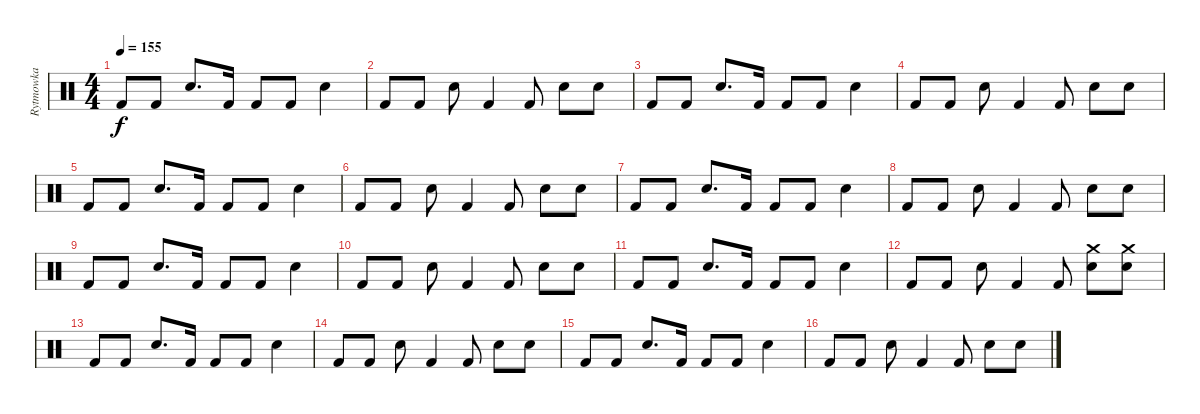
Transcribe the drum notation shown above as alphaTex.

\track ("Rytmowka" "Rytmowka") {instrument percussion}
\staff {score}
\articulation defaults
\ts (4 4)
\tempo 155
\clef neutral
\ks c "Kick (hit) 2".8{dy f} "Kick (hit) 2".8 "Snare (hit) 2".8{d} "Kick (hit) 2".16 "Kick (hit) 2".8 "Kick (hit) 2".8 "Snare (hit) 2".4
|
"Kick (hit) 2".8 "Kick (hit) 2".8 "Snare (hit) 2".8 "Kick (hit) 2".4 "Kick (hit) 2".8 "Snare (hit) 2".8 "Snare (hit) 2".8 |
"Kick (hit) 2".8 "Kick (hit) 2".8 "Snare (hit) 2".8{d} "Kick (hit) 2".16 "Kick (hit) 2".8 "Kick (hit) 2".8 "Snare (hit) 2".4 |
"Kick (hit) 2".8 "Kick (hit) 2".8 "Snare (hit) 2".8 "Kick (hit) 2".4 "Kick (hit) 2".8 "Snare (hit) 2".8 "Snare (hit) 2".8 |
"Kick (hit) 2".8 "Kick (hit) 2".8 "Snare (hit) 2".8{d} "Kick (hit) 2".16 "Kick (hit) 2".8 "Kick (hit) 2".8 "Snare (hit) 2".4 |
"Kick (hit) 2".8 "Kick (hit) 2".8 "Snare (hit) 2".8 "Kick (hit) 2".4 "Kick (hit) 2".8 "Snare (hit) 2".8 "Snare (hit) 2".8 |
"Kick (hit) 2".8 "Kick (hit) 2".8 "Snare (hit) 2".8{d} "Kick (hit) 2".16 "Kick (hit) 2".8 "Kick (hit) 2".8 "Snare (hit) 2".4 |
"Kick (hit) 2".8 "Kick (hit) 2".8 "Snare (hit) 2".8 "Kick (hit) 2".4 "Kick (hit) 2".8 "Snare (hit) 2".8 "Snare (hit) 2".8 |
"Kick (hit) 2".8 "Kick (hit) 2".8 "Snare (hit) 2".8{d} "Kick (hit) 2".16 "Kick (hit) 2".8 "Kick (hit) 2".8 "Snare (hit) 2".4 |
"Kick (hit) 2".8 "Kick (hit) 2".8 "Snare (hit) 2".8 "Kick (hit) 2".4 "Kick (hit) 2".8 "Snare (hit) 2".8 "Snare (hit) 2".8 |
"Kick (hit) 2".8 "Kick (hit) 2".8 "Snare (hit) 2".8{d} "Kick (hit) 2".16 "Kick (hit) 2".8 "Kick (hit) 2".8 "Snare (hit) 2".4 |
"Kick (hit) 2".8 "Kick (hit) 2".8 "Snare (hit) 2".8 "Kick (hit) 2".4 "Kick (hit) 2".8 ("Crash medium (hit)" "Snare (hit) 2").8 ("Crash medium (hit)" "Snare (hit) 2").8 |
"Kick (hit) 2".8 "Kick (hit) 2".8 "Snare (hit) 2".8{d} "Kick (hit) 2".16 "Kick (hit) 2".8 "Kick (hit) 2".8 "Snare (hit) 2".4 |
"Kick (hit) 2".8 "Kick (hit) 2".8 "Snare (hit) 2".8 "Kick (hit) 2".4 "Kick (hit) 2".8 "Snare (hit) 2".8 "Snare (hit) 2".8 |
"Kick (hit) 2".8 "Kick (hit) 2".8 "Snare (hit) 2".8{d} "Kick (hit) 2".16 "Kick (hit) 2".8 "Kick (hit) 2".8 "Snare (hit) 2".4 |
"Kick (hit) 2".8 "Kick (hit) 2".8 "Snare (hit) 2".8 "Kick (hit) 2".4 "Kick (hit) 2".8 "Snare (hit) 2".8 "Snare (hit) 2".8
